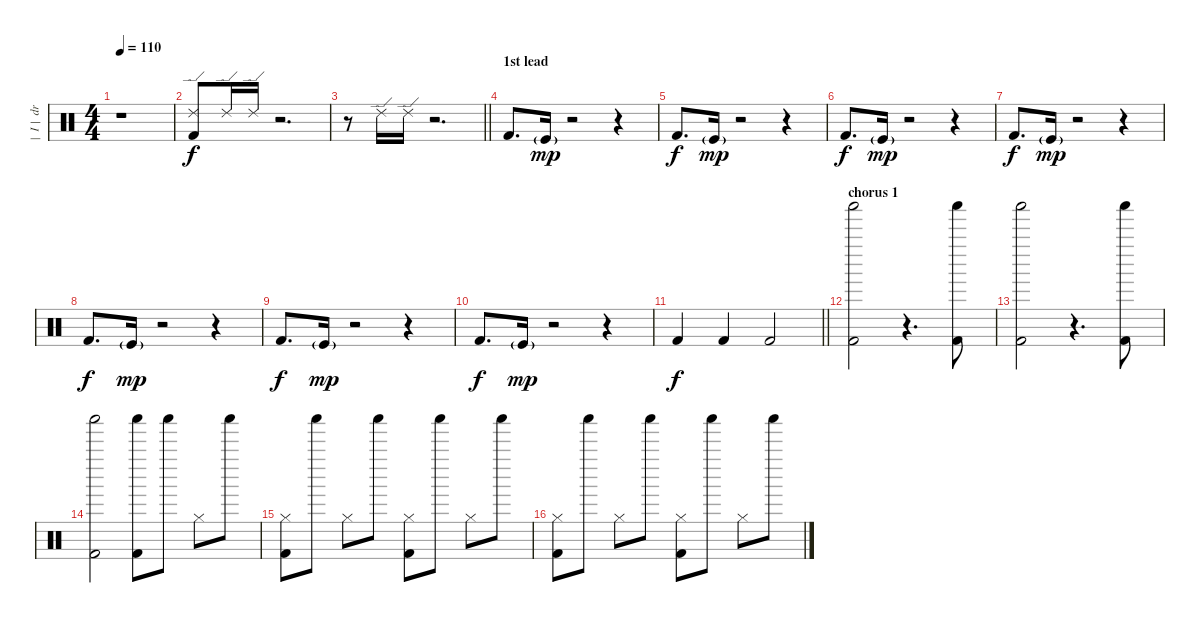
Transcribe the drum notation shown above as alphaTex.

\track ("|  I |  drum" "|  I |  dr") {instrument percussion}
\staff {score}
\articulation defaults
\ts (4 4)
\tempo 110
\clef neutral
\ks c
r.1{dy f} |
("Ride (edge) 2" "Kick (hit) 2").8 "Ride (edge) 2".16 "Ride (edge) 2".16 r.2{d} |
\barLineRight lightlight
r.8 "Ride (edge) 2".16 "Ride (edge) 2".16 r.2{d} |
\section ("" "1st lead")
"Kick (hit) 2".8{d} "Kick (hit)"{g}.16{dy mp} r.2 r.4 |
"Kick (hit) 2".8{d dy f} "Kick (hit)"{g}.16{dy mp} r.2 r.4 |
"Kick (hit) 2".8{d dy f} "Kick (hit)"{g}.16{dy mp} r.2 r.4 |
"Kick (hit) 2".8{d dy f} "Kick (hit)"{g}.16{dy mp} r.2 r.4 |
"Kick (hit) 2".8{d dy f} "Kick (hit)"{g}.16{dy mp} r.2 r.4 |
"Kick (hit) 2".8{d dy f} "Kick (hit)"{g}.16{dy mp} r.2 r.4 |
"Kick (hit) 2".8{d dy f} "Kick (hit)"{g}.16{dy mp} r.2 r.4 |
\barLineRight lightlight "Kick (hit) 2".4{dy f} "Kick (hit) 2".4 "Kick (hit) 2".2
|
\section ("" "chorus 1")
("Kick (hit) 2" "Shaker (hit)").2 r.4{d} ("Kick (hit) 2" "Shaker (hit)").8 |
("Kick (hit) 2" "Shaker (hit)").2 r.4{d} ("Kick (hit) 2" "Shaker (hit)").8 |
("Kick (hit) 2" "Shaker (hit)").2 ("Kick (hit) 2" "Shaker (hit)").8 "Shaker (hit)".8 "Hi-Hat (closed)".8 "Shaker (hit)".8 |
("Kick (hit) 2" "Hi-Hat (closed)").8 "Shaker (hit)".8 "Hi-Hat (closed)".8 "Shaker (hit)".8 ("Kick (hit) 2" "Hi-Hat (closed)").8 "Shaker (hit)".8 "Hi-Hat (closed)".8 "Shaker (hit)".8 |
("Kick (hit) 2" "Hi-Hat (closed)").8 "Shaker (hit)".8 "Hi-Hat (closed)".8 "Shaker (hit)".8 ("Kick (hit) 2" "Hi-Hat (closed)").8 "Shaker (hit)".8 "Hi-Hat (closed)".8 "Shaker (hit)".8
